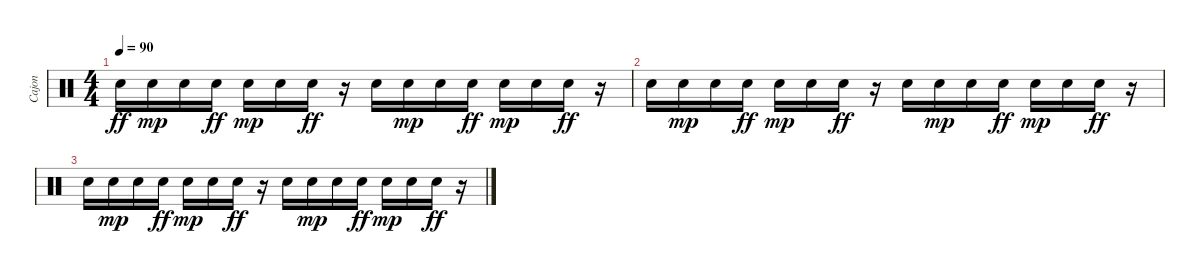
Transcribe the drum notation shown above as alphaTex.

\track ("Cajon" "Cajon") {instrument percussion}
\staff {score}
\articulation defaults
\ts (4 4)
\tempo 90
\clef neutral
\ks c "Snare (hit) 2".16{dy ff} "Electric Snare (hit)".16{dy mp} "Electric Snare (hit)".16 "Electric Snare (hit)".16{dy ff} "Electric Snare (hit)".16{dy mp} "Electric Snare (hit)".16 "Electric Snare (hit)".16{dy ff}
r.16 "Snare (hit) 2".16 "Electric Snare (hit)".16{dy mp} "Electric Snare (hit)".16 "Electric Snare (hit)".16{dy ff} "Electric Snare (hit)".16{dy mp} "Electric Snare (hit)".16 "Electric Snare (hit)".16{dy ff} r.16 |
"Snare (hit) 2".16 "Electric Snare (hit)".16{dy mp} "Electric Snare (hit)".16 "Electric Snare (hit)".16{dy ff} "Electric Snare (hit)".16{dy mp} "Electric Snare (hit)".16 "Electric Snare (hit)".16{dy ff} r.16 "Snare (hit) 2".16 "Electric Snare (hit)".16{dy mp} "Electric Snare (hit)".16 "Electric Snare (hit)".16{dy ff} "Electric Snare (hit)".16{dy mp} "Electric Snare (hit)".16 "Electric Snare (hit)".16{dy ff} r.16 |
"Snare (hit) 2".16 "Electric Snare (hit)".16{dy mp} "Electric Snare (hit)".16 "Electric Snare (hit)".16{dy ff} "Electric Snare (hit)".16{dy mp} "Electric Snare (hit)".16 "Electric Snare (hit)".16{dy ff} r.16 "Snare (hit) 2".16 "Electric Snare (hit)".16{dy mp} "Electric Snare (hit)".16 "Electric Snare (hit)".16{dy ff} "Electric Snare (hit)".16{dy mp} "Electric Snare (hit)".16 "Electric Snare (hit)".16{dy ff} r.16
